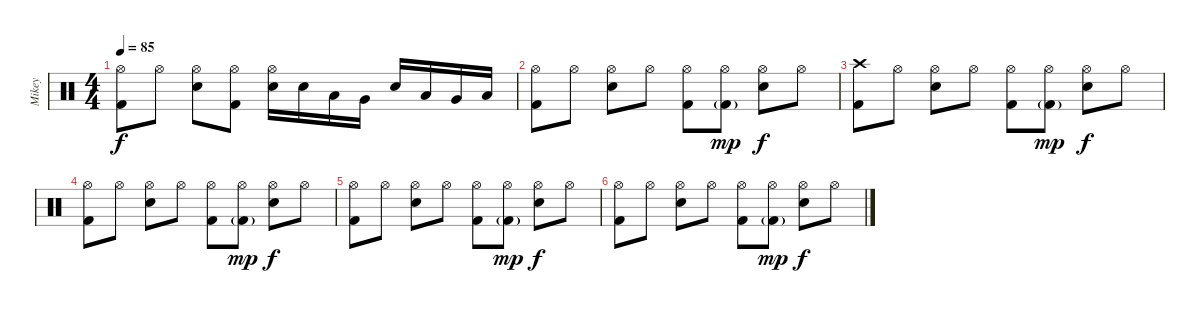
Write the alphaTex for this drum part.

\track ("Mikey" "Mikey") {instrument percussion}
\staff {score}
\articulation defaults
\ts (4 4)
\tempo 85
\clef neutral
\ks c
("Hi-Hat (open)" "Kick (hit) 2").8{dy f} "Hi-Hat (open)".8 ("Hi-Hat (open)" "Snare (hit) 2").8 ("Hi-Hat (open)" "Kick (hit) 2").8 ("Hi-Hat (open)" "Snare (hit) 2").16 "Snare (hit) 2".16 "Low Tom (hit)".16 "Very Low Tom (hit)".16 "Snare (hit) 2".16 "Low Tom (hit)".16 "Very Low Tom (hit)".16 "Low Floor Tom (hit)".16 |
("Hi-Hat (open)" "Kick (hit) 2").8{volume 0} "Hi-Hat (open)".8 ("Hi-Hat (open)" "Snare (hit) 2").8 "Hi-Hat (open)".8 ("Hi-Hat (open)" "Kick (hit) 2").8 ("Hi-Hat (open)" "Kick (hit) 2"{g}).8{dy mp} ("Hi-Hat (open)" "Snare (hit) 2").8{dy f} "Hi-Hat (open)".8 |
("Crash high (hit)" "Kick (hit) 2").8 "Hi-Hat (open)".8 ("Hi-Hat (open)" "Snare (hit) 2").8 "Hi-Hat (open)".8 ("Hi-Hat (open)" "Kick (hit) 2").8 ("Hi-Hat (open)" "Kick (hit) 2"{g}).8{dy mp} ("Hi-Hat (open)" "Snare (hit) 2").8{dy f} "Hi-Hat (open)".8 |
("Hi-Hat (open)" "Kick (hit) 2").8 "Hi-Hat (open)".8 ("Hi-Hat (open)" "Snare (hit) 2").8 "Hi-Hat (open)".8 ("Hi-Hat (open)" "Kick (hit) 2").8 ("Hi-Hat (open)" "Kick (hit) 2"{g}).8{dy mp} ("Hi-Hat (open)" "Snare (hit) 2").8{dy f} "Hi-Hat (open)".8 |
("Hi-Hat (open)" "Kick (hit) 2").8 "Hi-Hat (open)".8 ("Hi-Hat (open)" "Snare (hit) 2").8 "Hi-Hat (open)".8 ("Hi-Hat (open)" "Kick (hit) 2").8 ("Hi-Hat (open)" "Kick (hit) 2"{g}).8{dy mp} ("Hi-Hat (open)" "Snare (hit) 2").8{dy f} "Hi-Hat (open)".8 |
("Hi-Hat (open)" "Kick (hit) 2").8 "Hi-Hat (open)".8 ("Hi-Hat (open)" "Snare (hit) 2").8 "Hi-Hat (open)".8 ("Hi-Hat (open)" "Kick (hit) 2").8 ("Hi-Hat (open)" "Kick (hit) 2"{g}).8{dy mp} ("Hi-Hat (open)" "Snare (hit) 2").8{dy f} "Hi-Hat (open)".8
